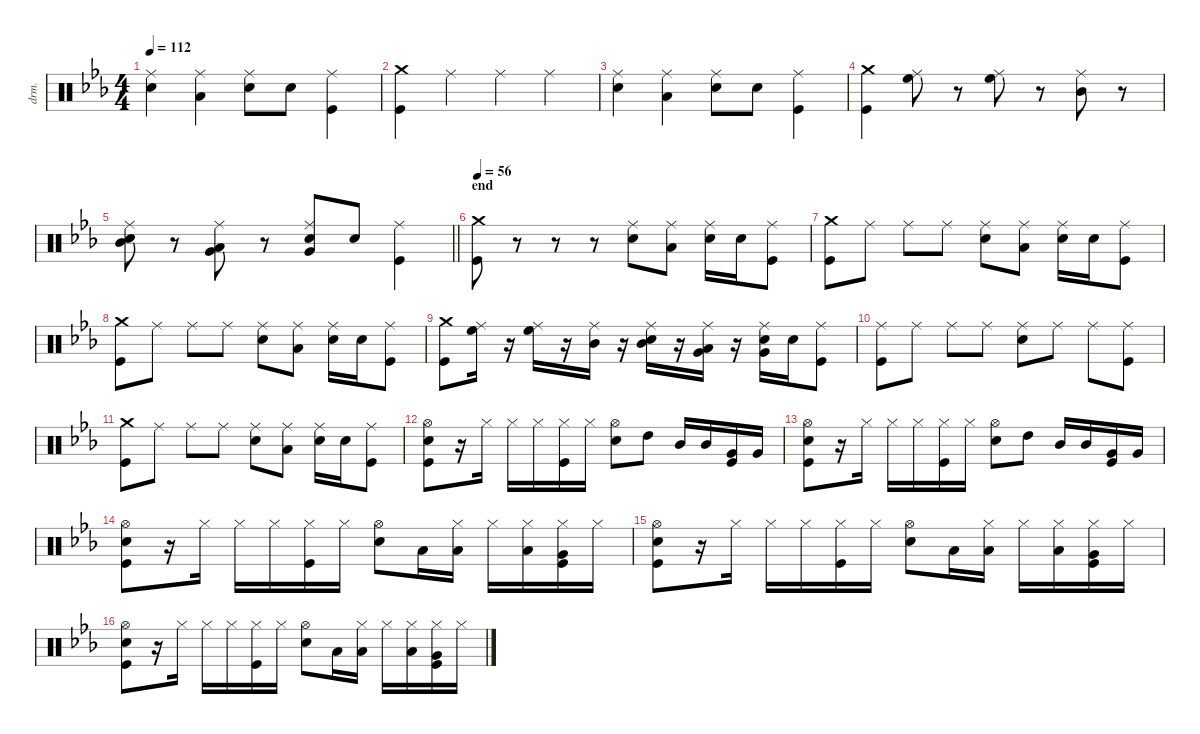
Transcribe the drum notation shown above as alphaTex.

\defaultSystemsLayout 4
\hideDynamics
\bracketExtendMode nobrackets
\otherSystemsTrackNameOrientation horizontal
\track ("Percussion" "drm.") {instrument percussion}
\staff {score}
\articulation defaults
\ts (4 4)
\tempo 112
\clef neutral
\ks cminor
("Snare (hit) 2"{acc forcenatural} "Ride (middle)"{acc forcenatural}).4{dy f} ("Low Floor Tom (hit)"{acc forcenatural} "Ride (middle)"{acc forcenatural}).4 ("Snare (hit) 2"{acc forcenatural} "Ride (middle)"{acc forcenatural}).8 "Snare (hit) 2"{acc forcenatural}.8 ("Kick (hit)"{acc forcenatural} "Ride (middle)"{acc forcenatural}).4 |
("Crash medium (hit)"{acc forcenatural} "Kick (hit)"{acc forcenatural}).4 "Ride (middle)"{acc forcenatural}.4 "Ride (middle)"{acc forcenatural}.4 "Ride (middle)"{acc forcenatural}.4 |
("Snare (hit) 2"{acc forcenatural} "Ride (middle)"{acc forcenatural}).4 ("Low Floor Tom (hit)"{acc forcenatural} "Ride (middle)"{acc forcenatural}).4 ("Snare (hit) 2"{acc forcenatural} "Ride (middle)"{acc forcenatural}).8 "Snare (hit) 2"{acc forcenatural}.8 ("Kick (hit)"{acc forcenatural} "Ride (middle)"{acc forcenatural}).4 |
("Crash medium (hit)"{acc forcenatural} "Kick (hit)"{acc forcenatural}).4 ("High Floor Tom (hit)"{acc forcenatural} "Ride (middle)"{acc forcenatural}).8 r.8 ("High Floor Tom (hit)"{acc forcenatural} "Ride (middle)"{acc forcenatural}).8 r.8 ("Mid Tom (hit)"{acc forcenatural} "Ride (middle)"{acc forcenatural}).8 r.8 |
\barLineRight lightlight
("Mid Tom (hit)"{acc forcenatural} "Snare (hit) 2"{acc forcenatural} "Ride (middle)"{acc forcenatural}).8 r.8 ("Very Low Tom (hit)"{acc forcenatural} "Low Floor Tom (hit)"{acc forcenatural} "Ride (middle)"{acc forcenatural}).8 r.8 ("Very Low Tom (hit)"{acc forcenatural} "Snare (hit) 2"{acc forcenatural} "Ride (middle)"{acc forcenatural}).8 "Snare (hit) 2"{acc forcenatural}.8 ("Kick (hit)"{acc forcenatural} "Ride (middle)"{acc forcenatural}).4 |
\section ("" "end")
\tempo 56
("Crash medium (hit)"{acc forcenatural} "Kick (hit)"{acc forcenatural}).8 r.8 r.8 r.8 ("Snare (hit) 2"{acc forcenatural} "Ride (middle)"{acc forcenatural}).8 ("Low Floor Tom (hit)"{acc forcenatural} "Ride (middle)"{acc forcenatural}).8 ("Snare (hit) 2"{acc forcenatural} "Ride (middle)"{acc forcenatural}).16 "Snare (hit) 2"{acc forcenatural}.16 ("Kick (hit)"{acc forcenatural} "Ride (middle)"{acc forcenatural}).8 |
("Crash medium (hit)"{acc forcenatural} "Kick (hit)"{acc forcenatural}).8 "Ride (middle)"{acc forcenatural}.8 "Ride (middle)"{acc forcenatural}.8 "Ride (middle)"{acc forcenatural}.8 ("Snare (hit) 2"{acc forcenatural} "Ride (middle)"{acc forcenatural}).8 ("Low Floor Tom (hit)"{acc forcenatural} "Ride (middle)"{acc forcenatural}).8 ("Snare (hit) 2"{acc forcenatural} "Ride (middle)"{acc forcenatural}).16 "Snare (hit) 2"{acc forcenatural}.16 ("Kick (hit)"{acc forcenatural} "Ride (middle)"{acc forcenatural}).8 |
("Crash medium (hit)"{acc forcenatural} "Kick (hit)"{acc forcenatural}).8 "Ride (middle)"{acc forcenatural}.8 "Ride (middle)"{acc forcenatural}.8 "Ride (middle)"{acc forcenatural}.8 ("Snare (hit) 2"{acc forcenatural} "Ride (middle)"{acc forcenatural}).8 ("Low Floor Tom (hit)"{acc forcenatural} "Ride (middle)"{acc forcenatural}).8 ("Snare (hit) 2"{acc forcenatural} "Ride (middle)"{acc forcenatural}).16 "Snare (hit) 2"{acc forcenatural}.16 ("Kick (hit)"{acc forcenatural} "Ride (middle)"{acc forcenatural}).8 |
("Crash medium (hit)"{acc forcenatural} "Kick (hit)"{acc forcenatural}).8 ("High Floor Tom (hit)"{acc forcenatural} "Ride (middle)"{acc forcenatural}).16 r.16 ("High Floor Tom (hit)"{acc forcenatural} "Ride (middle)"{acc forcenatural}).16 r.16 ("Mid Tom (hit)"{acc forcenatural} "Ride (middle)"{acc forcenatural}).16 r.16 ("Mid Tom (hit)"{acc forcenatural} "Snare (hit) 2"{acc forcenatural} "Ride (middle)"{acc forcenatural}).16 r.16 ("Very Low Tom (hit)"{acc forcenatural} "Low Floor Tom (hit)"{acc forcenatural} "Ride (middle)"{acc forcenatural}).16 r.16 ("Very Low Tom (hit)"{acc forcenatural} "Snare (hit) 2"{acc forcenatural} "Ride (middle)"{acc forcenatural}).16 "Snare (hit) 2"{acc forcenatural}.16 ("Kick (hit)"{acc forcenatural} "Ride (middle)"{acc forcenatural}).8 |
\ks eb
("Ride (middle)"{acc forcenatural} "Kick (hit)"{acc forcenatural}).8 "Ride (middle)"{acc forcenatural}.8 "Ride (middle)"{acc forcenatural}.8 "Ride (middle)"{acc forcenatural}.8 ("Snare (hit) 2"{acc forcenatural} "Ride (middle)"{acc forcenatural}).8 "Ride (middle)"{acc forcenatural}.8 "Ride (middle)"{acc forcenatural}.8 ("Kick (hit)"{acc forcenatural} "Ride (middle)"{acc forcenatural}).8 |
("Crash medium (hit)"{acc forcenatural} "Kick (hit)"{acc forcenatural}).8 "Ride (middle)"{acc forcenatural}.8 "Ride (middle)"{acc forcenatural}.8 "Ride (middle)"{acc forcenatural}.8 ("Snare (hit) 2"{acc forcenatural} "Ride (middle)"{acc forcenatural}).8 ("Low Floor Tom (hit)"{acc forcenatural} "Ride (middle)"{acc forcenatural}).8 ("Snare (hit) 2"{acc forcenatural} "Ride (middle)"{acc forcenatural}).16 "Snare (hit) 2"{acc forcenatural}.16 ("Kick (hit)"{acc forcenatural} "Ride (middle)"{acc forcenatural}).8 |
("Hi-Hat (open)"{acc forcenatural} "Kick (hit)"{acc forcenatural} "Snare (hit) 2"{acc forcenatural}).8 r.16 "Hi-Hat (closed)"{acc forcenatural}.16 "Hi-Hat (closed)"{acc forcenatural}.16 "Hi-Hat (closed)"{acc forcenatural}.16 ("Kick (hit)"{acc forcenatural} "Hi-Hat (closed)"{acc forcenatural}).16 "Hi-Hat (closed)"{acc forcenatural}.16 ("Snare (hit) 2"{acc forcenatural} "Hi-Hat (open)"{acc forcenatural}).8 "High Tom (hit)"{acc forcenatural}.8 "Mid Tom (hit)"{acc forcenatural}.16 "Mid Tom (hit)"{acc forcenatural}.16 ("Very Low Tom (hit)"{acc forcenatural} "Kick (hit)"{acc forcenatural}).16 "Very Low Tom (hit)"{acc forcenatural}.16 |
("Hi-Hat (open)"{acc forcenatural} "Kick (hit)"{acc forcenatural} "Snare (hit) 2"{acc forcenatural}).8 r.16 "Hi-Hat (closed)"{acc forcenatural}.16 "Hi-Hat (closed)"{acc forcenatural}.16 "Hi-Hat (closed)"{acc forcenatural}.16 ("Kick (hit)"{acc forcenatural} "Hi-Hat (closed)"{acc forcenatural}).16 "Hi-Hat (closed)"{acc forcenatural}.16 ("Snare (hit) 2"{acc forcenatural} "Hi-Hat (open)"{acc forcenatural}).8 "High Tom (hit)"{acc forcenatural}.8 "Mid Tom (hit)"{acc forcenatural}.16 "Mid Tom (hit)"{acc forcenatural}.16 ("Very Low Tom (hit)"{acc forcenatural} "Kick (hit)"{acc forcenatural}).16 "Very Low Tom (hit)"{acc forcenatural}.16 |
("Hi-Hat (open)"{acc forcenatural} "Kick (hit)"{acc forcenatural} "Snare (hit) 2"{acc forcenatural}).8 r.16 "Hi-Hat (closed)"{acc forcenatural}.16 "Hi-Hat (closed)"{acc forcenatural}.16 "Hi-Hat (closed)"{acc forcenatural}.16 ("Kick (hit)"{acc forcenatural} "Hi-Hat (closed)"{acc forcenatural}).16 "Hi-Hat (closed)"{acc forcenatural}.16 ("Snare (hit) 2"{acc forcenatural} "Hi-Hat (open)"{acc forcenatural}).8 "Low Tom (hit)"{acc forcenatural}.16 ("Low Tom (hit)"{acc forcenatural} "Hi-Hat (closed)"{acc forcenatural}).16 "Hi-Hat (closed)"{acc forcenatural}.16 ("Low Tom (hit)"{acc forcenatural} "Hi-Hat (closed)"{acc forcenatural}).16 ("Very Low Tom (hit)"{acc forcenatural} "Kick (hit)"{acc forcenatural} "Hi-Hat (closed)"{acc forcenatural}).16 "Hi-Hat (closed)"{acc forcenatural}.16 |
("Hi-Hat (open)"{acc forcenatural} "Kick (hit)"{acc forcenatural} "Snare (hit) 2"{acc forcenatural}).8 r.16 "Hi-Hat (closed)"{acc forcenatural}.16 "Hi-Hat (closed)"{acc forcenatural}.16 "Hi-Hat (closed)"{acc forcenatural}.16 ("Kick (hit)"{acc forcenatural} "Hi-Hat (closed)"{acc forcenatural}).16 "Hi-Hat (closed)"{acc forcenatural}.16 ("Snare (hit) 2"{acc forcenatural} "Hi-Hat (open)"{acc forcenatural}).8 "Low Tom (hit)"{acc forcenatural}.16 ("Low Tom (hit)"{acc forcenatural} "Hi-Hat (closed)"{acc forcenatural}).16 "Hi-Hat (closed)"{acc forcenatural}.16 ("Low Tom (hit)"{acc forcenatural} "Hi-Hat (closed)"{acc forcenatural}).16 ("Very Low Tom (hit)"{acc forcenatural} "Kick (hit)"{acc forcenatural} "Hi-Hat (closed)"{acc forcenatural}).16 "Hi-Hat (closed)"{acc forcenatural}.16 |
("Hi-Hat (open)"{acc forcenatural} "Kick (hit)"{acc forcenatural} "Snare (hit) 2"{acc forcenatural}).8 r.16 "Hi-Hat (closed)"{acc forcenatural}.16 "Hi-Hat (closed)"{acc forcenatural}.16 "Hi-Hat (closed)"{acc forcenatural}.16 ("Kick (hit)"{acc forcenatural} "Hi-Hat (closed)"{acc forcenatural}).16 "Hi-Hat (closed)"{acc forcenatural}.16 ("Snare (hit) 2"{acc forcenatural} "Hi-Hat (open)"{acc forcenatural}).8 "Low Tom (hit)"{acc forcenatural}.16 ("Low Tom (hit)"{acc forcenatural} "Hi-Hat (closed)"{acc forcenatural}).16 "Hi-Hat (closed)"{acc forcenatural}.16 ("Low Tom (hit)"{acc forcenatural} "Hi-Hat (closed)"{acc forcenatural}).16 ("Very Low Tom (hit)"{acc forcenatural} "Kick (hit)"{acc forcenatural} "Hi-Hat (closed)"{acc forcenatural}).16 "Hi-Hat (closed)"{acc forcenatural}.16
